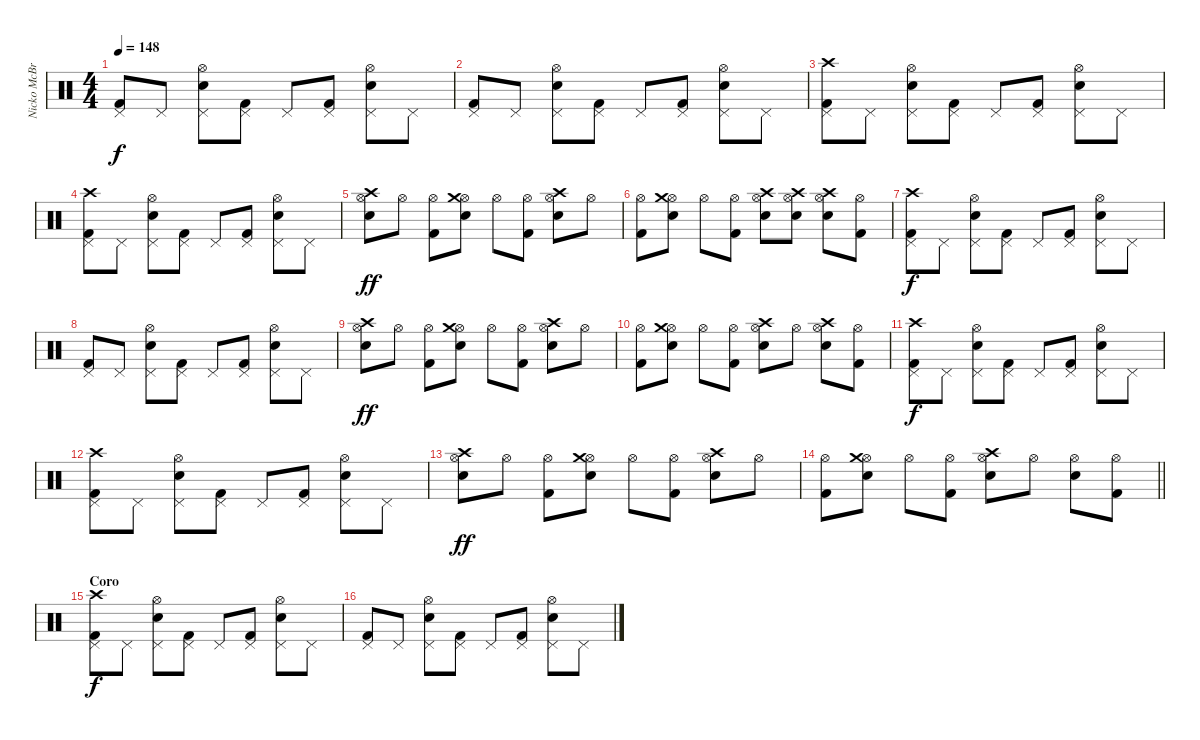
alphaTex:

\track ("Nicko McBrain" "Nicko McBr") {instrument percussion}
\staff {score}
\articulation defaults
\ts (4 4)
\tempo 148
\clef neutral
\ks c
("Kick (hit) 2" "Pedal Hi-Hat (hit)").8{dy f} "Pedal Hi-Hat (hit)".8 ("Snare (hit) 2" "Pedal Hi-Hat (hit)" "Hi-Hat (open)").8 ("Kick (hit) 2" "Pedal Hi-Hat (hit)").8 "Pedal Hi-Hat (hit)".8 ("Kick (hit) 2" "Pedal Hi-Hat (hit)").8 ("Snare (hit) 2" "Pedal Hi-Hat (hit)" "Hi-Hat (open)").8 "Pedal Hi-Hat (hit)".8 |
("Kick (hit) 2" "Pedal Hi-Hat (hit)").8 "Pedal Hi-Hat (hit)".8 ("Snare (hit) 2" "Pedal Hi-Hat (hit)" "Hi-Hat (open)").8 ("Kick (hit) 2" "Pedal Hi-Hat (hit)").8 "Pedal Hi-Hat (hit)".8 ("Kick (hit) 2" "Pedal Hi-Hat (hit)").8 ("Snare (hit) 2" "Pedal Hi-Hat (hit)" "Hi-Hat (open)").8 "Pedal Hi-Hat (hit)".8 |
("Kick (hit) 2" "Pedal Hi-Hat (hit)" "Crash high (hit)").8 "Pedal Hi-Hat (hit)".8 ("Snare (hit) 2" "Pedal Hi-Hat (hit)" "Hi-Hat (open)").8 ("Kick (hit) 2" "Pedal Hi-Hat (hit)").8 "Pedal Hi-Hat (hit)".8 ("Kick (hit) 2" "Pedal Hi-Hat (hit)").8 ("Snare (hit) 2" "Pedal Hi-Hat (hit)" "Hi-Hat (open)").8 "Pedal Hi-Hat (hit)".8 |
("Kick (hit) 2" "Pedal Hi-Hat (hit)" "Crash high (hit)").8 "Pedal Hi-Hat (hit)".8 ("Snare (hit) 2" "Pedal Hi-Hat (hit)" "Hi-Hat (open)").8 ("Kick (hit) 2" "Pedal Hi-Hat (hit)").8 "Pedal Hi-Hat (hit)".8 ("Kick (hit) 2" "Pedal Hi-Hat (hit)").8 ("Snare (hit) 2" "Pedal Hi-Hat (hit)" "Hi-Hat (open)").8 "Pedal Hi-Hat (hit)".8 |
("Snare (hit) 2" "Hi-Hat (open)" "Crash high (hit)").8{dy ff} "Hi-Hat (open)".8 ("Kick (hit) 2" "Hi-Hat (open)").8 ("Snare (hit) 2" "Hi-Hat (open)" "Crash medium (hit)").8 "Hi-Hat (open)".8 ("Kick (hit) 2" "Hi-Hat (open)").8 ("Snare (hit) 2" "Hi-Hat (open)" "Crash high (hit)").8 "Hi-Hat (open)".8 |
("Kick (hit) 2" "Hi-Hat (open)").8 ("Snare (hit) 2" "Hi-Hat (open)" "Crash medium (hit)").8 "Hi-Hat (open)".8 ("Kick (hit) 2" "Hi-Hat (open)").8 ("Snare (hit) 2" "Hi-Hat (open)" "Crash high (hit)").8 ("Hi-Hat (open)" "Snare (hit) 2" "Crash high (hit)").8 ("Snare (hit) 2" "Crash high (hit)" "Hi-Hat (open)").8 ("Kick (hit) 2" "Hi-Hat (open)").8 |
("Kick (hit) 2" "Pedal Hi-Hat (hit)" "Crash high (hit)").8{dy f} "Pedal Hi-Hat (hit)".8 ("Snare (hit) 2" "Pedal Hi-Hat (hit)" "Hi-Hat (open)").8 ("Kick (hit) 2" "Pedal Hi-Hat (hit)").8 "Pedal Hi-Hat (hit)".8 ("Kick (hit) 2" "Pedal Hi-Hat (hit)").8 ("Snare (hit) 2" "Pedal Hi-Hat (hit)" "Hi-Hat (open)").8 "Pedal Hi-Hat (hit)".8 |
("Kick (hit) 2" "Pedal Hi-Hat (hit)").8 "Pedal Hi-Hat (hit)".8 ("Snare (hit) 2" "Pedal Hi-Hat (hit)" "Hi-Hat (open)").8 ("Kick (hit) 2" "Pedal Hi-Hat (hit)").8 "Pedal Hi-Hat (hit)".8 ("Kick (hit) 2" "Pedal Hi-Hat (hit)").8 ("Snare (hit) 2" "Pedal Hi-Hat (hit)" "Hi-Hat (open)").8 "Pedal Hi-Hat (hit)".8 |
("Snare (hit) 2" "Hi-Hat (open)" "Crash high (hit)").8{dy ff} "Hi-Hat (open)".8 ("Kick (hit) 2" "Hi-Hat (open)").8 ("Snare (hit) 2" "Hi-Hat (open)" "Crash medium (hit)").8 "Hi-Hat (open)".8 ("Kick (hit) 2" "Hi-Hat (open)").8 ("Snare (hit) 2" "Hi-Hat (open)" "Crash high (hit)").8 "Hi-Hat (open)".8 |
("Kick (hit) 2" "Hi-Hat (open)").8 ("Snare (hit) 2" "Hi-Hat (open)" "Crash medium (hit)").8 "Hi-Hat (open)".8 ("Kick (hit) 2" "Hi-Hat (open)").8 ("Snare (hit) 2" "Hi-Hat (open)" "Crash high (hit)").8 "Hi-Hat (open)".8 ("Snare (hit) 2" "Hi-Hat (open)" "Crash high (hit)").8 ("Kick (hit) 2" "Hi-Hat (open)").8 |
("Kick (hit) 2" "Pedal Hi-Hat (hit)" "Crash high (hit)").8{dy f} "Pedal Hi-Hat (hit)".8 ("Snare (hit) 2" "Pedal Hi-Hat (hit)" "Hi-Hat (open)").8 ("Kick (hit) 2" "Pedal Hi-Hat (hit)").8 "Pedal Hi-Hat (hit)".8 ("Kick (hit) 2" "Pedal Hi-Hat (hit)").8 ("Snare (hit) 2" "Pedal Hi-Hat (hit)" "Hi-Hat (open)").8 "Pedal Hi-Hat (hit)".8 |
("Kick (hit) 2" "Pedal Hi-Hat (hit)" "Crash high (hit)").8 "Pedal Hi-Hat (hit)".8 ("Snare (hit) 2" "Pedal Hi-Hat (hit)" "Hi-Hat (open)").8 ("Kick (hit) 2" "Pedal Hi-Hat (hit)").8 "Pedal Hi-Hat (hit)".8 ("Kick (hit) 2" "Pedal Hi-Hat (hit)").8 ("Snare (hit) 2" "Pedal Hi-Hat (hit)" "Hi-Hat (open)").8 "Pedal Hi-Hat (hit)".8 |
("Snare (hit) 2" "Hi-Hat (open)" "Crash high (hit)").8{dy ff} "Hi-Hat (open)".8 ("Kick (hit) 2" "Hi-Hat (open)").8 ("Snare (hit) 2" "Hi-Hat (open)" "Crash medium (hit)").8 "Hi-Hat (open)".8 ("Kick (hit) 2" "Hi-Hat (open)").8 ("Snare (hit) 2" "Hi-Hat (open)" "Crash high (hit)").8 "Hi-Hat (open)".8 |
\barLineRight lightlight
("Kick (hit) 2" "Hi-Hat (open)").8 ("Snare (hit) 2" "Hi-Hat (open)" "Crash medium (hit)").8 "Hi-Hat (open)".8 ("Kick (hit) 2" "Hi-Hat (open)").8 ("Snare (hit) 2" "Hi-Hat (open)" "Crash high (hit)").8 "Hi-Hat (open)".8 ("Snare (hit) 2" "Hi-Hat (open)").8 ("Kick (hit) 2" "Hi-Hat (open)").8 |
\section ("" "Coro")
("Kick (hit) 2" "Pedal Hi-Hat (hit)" "Crash high (hit)").8{dy f} "Pedal Hi-Hat (hit)".8 ("Snare (hit) 2" "Pedal Hi-Hat (hit)" "Hi-Hat (open)").8 ("Kick (hit) 2" "Pedal Hi-Hat (hit)").8 "Pedal Hi-Hat (hit)".8 ("Kick (hit) 2" "Pedal Hi-Hat (hit)").8 ("Snare (hit) 2" "Pedal Hi-Hat (hit)" "Hi-Hat (open)").8 "Pedal Hi-Hat (hit)".8 |
("Kick (hit) 2" "Pedal Hi-Hat (hit)").8 "Pedal Hi-Hat (hit)".8 ("Snare (hit) 2" "Pedal Hi-Hat (hit)" "Hi-Hat (open)").8 ("Kick (hit) 2" "Pedal Hi-Hat (hit)").8 "Pedal Hi-Hat (hit)".8 ("Kick (hit) 2" "Pedal Hi-Hat (hit)").8 ("Snare (hit) 2" "Pedal Hi-Hat (hit)" "Hi-Hat (open)").8 "Pedal Hi-Hat (hit)".8
